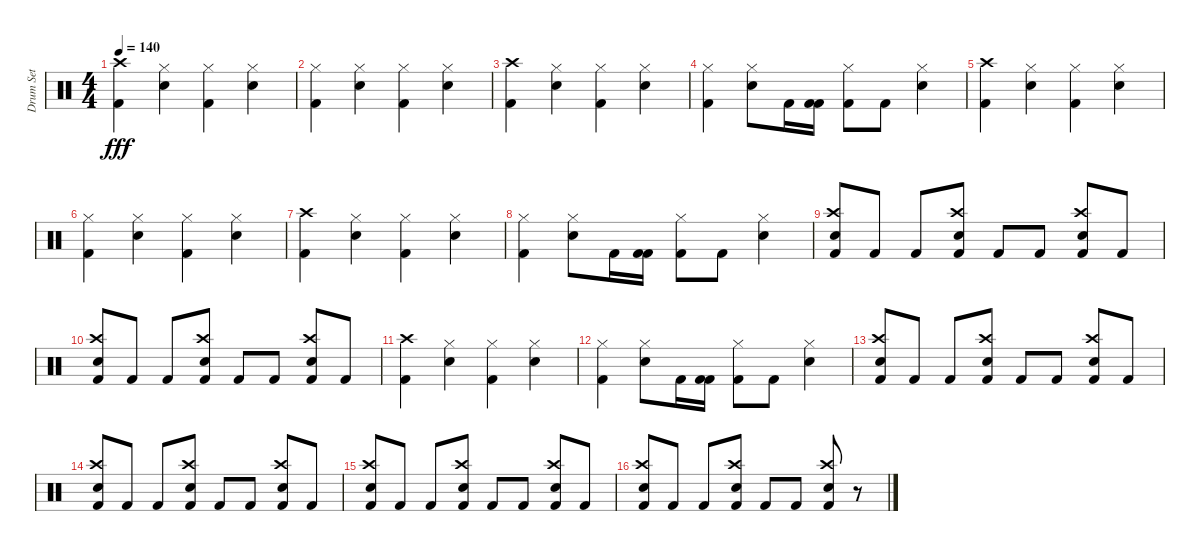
\track ("Drum Set" "Drum Set") {instrument percussion}
\staff {score}
\articulation defaults
\ts (4 4)
\tempo 140
\clef neutral
\ks c
("Kick (hit) 2" "Crash high (hit)").4{dy fff} ("Electric Snare (hit)" "Hi-Hat (closed)").4 ("Kick (hit) 2" "Hi-Hat (closed)").4 ("Electric Snare (hit)" "Hi-Hat (closed)").4 |
("Kick (hit) 2" "Hi-Hat (closed)").4 ("Electric Snare (hit)" "Hi-Hat (closed)").4 ("Kick (hit) 2" "Hi-Hat (closed)").4 ("Electric Snare (hit)" "Hi-Hat (closed)").4 |
("Kick (hit) 2" "Crash high (hit)").4 ("Electric Snare (hit)" "Hi-Hat (closed)").4 ("Kick (hit) 2" "Hi-Hat (closed)").4 ("Electric Snare (hit)" "Hi-Hat (closed)").4 |
("Kick (hit) 2" "Hi-Hat (closed)").4 ("Electric Snare (hit)" "Hi-Hat (closed)").8 "Kick (hit) 2".16 ("Kick (hit) 2" "Kick (hit) 2").16 ("Hi-Hat (closed)" "Kick (hit) 2").8 "Kick (hit) 2".8 ("Electric Snare (hit)" "Hi-Hat (closed)").4 |
("Kick (hit) 2" "Crash high (hit)").4 ("Electric Snare (hit)" "Hi-Hat (closed)").4 ("Kick (hit) 2" "Hi-Hat (closed)").4 ("Electric Snare (hit)" "Hi-Hat (closed)").4 |
("Kick (hit) 2" "Hi-Hat (closed)").4 ("Electric Snare (hit)" "Hi-Hat (closed)").4 ("Kick (hit) 2" "Hi-Hat (closed)").4 ("Electric Snare (hit)" "Hi-Hat (closed)").4 |
("Kick (hit) 2" "Crash high (hit)").4 ("Electric Snare (hit)" "Hi-Hat (closed)").4 ("Kick (hit) 2" "Hi-Hat (closed)").4 ("Electric Snare (hit)" "Hi-Hat (closed)").4 |
("Kick (hit) 2" "Hi-Hat (closed)").4 ("Electric Snare (hit)" "Hi-Hat (closed)").8 "Kick (hit) 2".16 ("Kick (hit) 2" "Kick (hit) 2").16 ("Kick (hit) 2" "Hi-Hat (closed)").8 "Kick (hit) 2".8 ("Hi-Hat (closed)" "Electric Snare (hit)").4 |
("Electric Snare (hit)" "Kick (hit) 2" "Crash high (hit)").8 "Kick (hit) 2".8 "Kick (hit) 2".8 ("Electric Snare (hit)" "Crash high (hit)" "Kick (hit) 2").8 "Kick (hit) 2".8 "Kick (hit) 2".8 ("Electric Snare (hit)" "Kick (hit) 2" "Crash high (hit)").8 "Kick (hit) 2".8 |
("Electric Snare (hit)" "Kick (hit) 2" "Crash high (hit)").8 "Kick (hit) 2".8 "Kick (hit) 2".8 ("Electric Snare (hit)" "Kick (hit) 2" "Crash high (hit)").8 "Kick (hit) 2".8 "Kick (hit) 2".8 ("Electric Snare (hit)" "Crash high (hit)" "Kick (hit) 2").8 "Kick (hit) 2".8 |
("Kick (hit) 2" "Crash high (hit)").4 ("Electric Snare (hit)" "Hi-Hat (closed)").4 ("Kick (hit) 2" "Hi-Hat (closed)").4 ("Electric Snare (hit)" "Hi-Hat (closed)").4 |
("Kick (hit) 2" "Hi-Hat (closed)").4 ("Electric Snare (hit)" "Hi-Hat (closed)").8 "Kick (hit) 2".16 ("Kick (hit) 2" "Kick (hit) 2").16 ("Hi-Hat (closed)" "Kick (hit) 2").8 "Kick (hit) 2".8 ("Hi-Hat (closed)" "Electric Snare (hit)").4 |
("Electric Snare (hit)" "Kick (hit) 2" "Crash high (hit)").8 "Kick (hit) 2".8 "Kick (hit) 2".8 ("Electric Snare (hit)" "Kick (hit) 2" "Crash high (hit)").8 "Kick (hit) 2".8 "Kick (hit) 2".8 ("Electric Snare (hit)" "Kick (hit) 2" "Crash high (hit)").8 "Kick (hit) 2".8 |
("Electric Snare (hit)" "Crash high (hit)" "Kick (hit) 2").8 "Kick (hit) 2".8 "Kick (hit) 2".8 ("Electric Snare (hit)" "Crash high (hit)" "Kick (hit) 2").8 "Kick (hit) 2".8 "Kick (hit) 2".8 ("Electric Snare (hit)" "Crash high (hit)" "Kick (hit) 2").8 "Kick (hit) 2".8 |
("Electric Snare (hit)" "Crash high (hit)" "Kick (hit) 2").8 "Kick (hit) 2".8 "Kick (hit) 2".8 ("Electric Snare (hit)" "Crash high (hit)" "Kick (hit) 2").8 "Kick (hit) 2".8 "Kick (hit) 2".8 ("Electric Snare (hit)" "Crash high (hit)" "Kick (hit) 2").8 "Kick (hit) 2".8 |
("Electric Snare (hit)" "Crash high (hit)" "Kick (hit) 2").8 "Kick (hit) 2".8 "Kick (hit) 2".8 ("Electric Snare (hit)" "Crash high (hit)" "Kick (hit) 2").8 "Kick (hit) 2".8 "Kick (hit) 2".8 ("Electric Snare (hit)" "Kick (hit) 2" "Crash high (hit)").8 r.8
